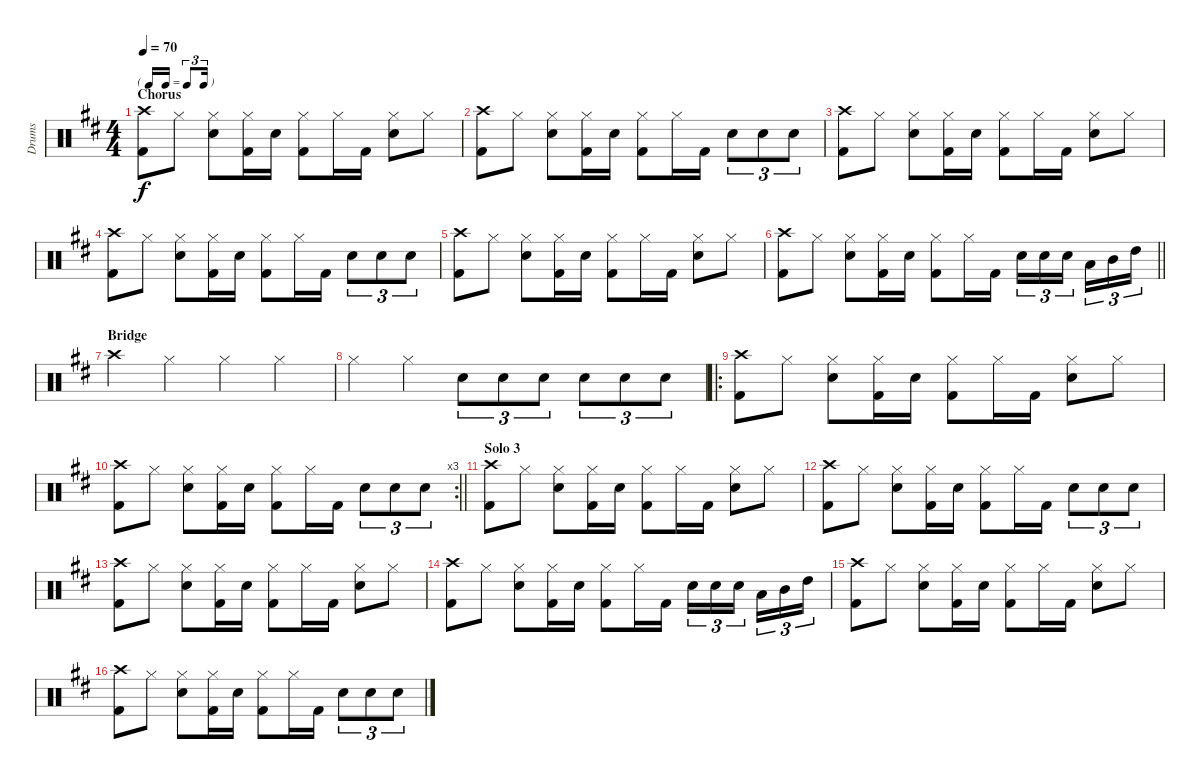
\track ("Drums" "Drums") {instrument percussion}
\staff {score}
\articulation defaults
\ts (4 4)
\tf triplet16th
\section ("" "Chorus")
\tempo 70
\clef neutral
\ks bminor
("Crash high (hit)" "Kick (hit) 2").8{dy f} "Hi-Hat (closed)".8 ("Hi-Hat (closed)" "Snare (hit) 2").8 ("Hi-Hat (closed)" "Kick (hit) 2").16 "Snare (hit) 2".16 ("Hi-Hat (closed)" "Kick (hit) 2").8 "Hi-Hat (closed)".16 "Kick (hit) 2".16 ("Hi-Hat (closed)" "Snare (hit) 2").8 "Hi-Hat (closed)".8 |
("Crash high (hit)" "Kick (hit) 2").8 "Hi-Hat (closed)".8 ("Hi-Hat (closed)" "Snare (hit) 2").8 ("Hi-Hat (closed)" "Kick (hit) 2").16 "Snare (hit) 2".16 ("Hi-Hat (closed)" "Kick (hit) 2").8 "Hi-Hat (closed)".16 "Kick (hit) 2".16 "Snare (hit) 2".8{tu (3 2)} "Snare (hit) 2".8{tu (3 2)} "Snare (hit) 2".8{tu (3 2)} |
("Crash high (hit)" "Kick (hit) 2").8 "Hi-Hat (closed)".8 ("Hi-Hat (closed)" "Snare (hit) 2").8 ("Hi-Hat (closed)" "Kick (hit) 2").16 "Snare (hit) 2".16 ("Hi-Hat (closed)" "Kick (hit) 2").8 "Hi-Hat (closed)".16 "Kick (hit) 2".16 ("Hi-Hat (closed)" "Snare (hit) 2").8 "Hi-Hat (closed)".8 |
("Crash high (hit)" "Kick (hit) 2").8 "Hi-Hat (closed)".8 ("Hi-Hat (closed)" "Snare (hit) 2").8 ("Hi-Hat (closed)" "Kick (hit) 2").16 "Snare (hit) 2".16 ("Hi-Hat (closed)" "Kick (hit) 2").8 "Hi-Hat (closed)".16 "Kick (hit) 2".16 "Snare (hit) 2".8{tu (3 2)} "Snare (hit) 2".8{tu (3 2)} "Snare (hit) 2".8{tu (3 2)} |
("Crash high (hit)" "Kick (hit) 2").8 "Hi-Hat (closed)".8 ("Hi-Hat (closed)" "Snare (hit) 2").8 ("Hi-Hat (closed)" "Kick (hit) 2").16 "Snare (hit) 2".16 ("Hi-Hat (closed)" "Kick (hit) 2").8 "Hi-Hat (closed)".16 "Kick (hit) 2".16 ("Hi-Hat (closed)" "Snare (hit) 2").8 "Hi-Hat (closed)".8 |
\barLineRight lightlight
("Crash high (hit)" "Kick (hit) 2").8 "Hi-Hat (closed)".8 ("Hi-Hat (closed)" "Snare (hit) 2").8 ("Hi-Hat (closed)" "Kick (hit) 2").16 "Snare (hit) 2".16 ("Hi-Hat (closed)" "Kick (hit) 2").8 "Hi-Hat (closed)".16 "Kick (hit) 2".16 "Snare (hit) 2".16{tu (3 2)} "Snare (hit) 2".16{tu (3 2)} "Snare (hit) 2".16{tu (3 2) beam splitsecondary} "Low Tom (hit)".16{tu (3 2)} "Mid Tom (hit)".16{tu (3 2)} "High Tom (hit)".16{tu (3 2)} |
\section ("" "Bridge")
"Crash high (hit)".4 "Hi-Hat (closed)".4 "Hi-Hat (closed)".4 "Hi-Hat (closed)".4 |
"Hi-Hat (closed)".4 "Hi-Hat (closed)".4 "Snare (hit) 2".8{tu (3 2)} "Snare (hit) 2".8{tu (3 2)} "Snare (hit) 2".8{tu (3 2)} "Snare (hit) 2".8{tu (3 2)} "Snare (hit) 2".8{tu (3 2)} "Snare (hit) 2".8{tu (3 2)} |
\ro
("Crash high (hit)" "Kick (hit) 2").8 "Hi-Hat (closed)".8 ("Hi-Hat (closed)" "Snare (hit) 2").8 ("Hi-Hat (closed)" "Kick (hit) 2").16 "Snare (hit) 2".16 ("Hi-Hat (closed)" "Kick (hit) 2").8 "Hi-Hat (closed)".16 "Kick (hit) 2".16 ("Hi-Hat (closed)" "Snare (hit) 2").8 "Hi-Hat (closed)".8 |
\rc 3
\barLineRight lightlight
("Crash high (hit)" "Kick (hit) 2").8 "Hi-Hat (closed)".8 ("Hi-Hat (closed)" "Snare (hit) 2").8 ("Hi-Hat (closed)" "Kick (hit) 2").16 "Snare (hit) 2".16 ("Hi-Hat (closed)" "Kick (hit) 2").8 "Hi-Hat (closed)".16 "Kick (hit) 2".16 "Snare (hit) 2".8{tu (3 2)} "Snare (hit) 2".8{tu (3 2)} "Snare (hit) 2".8{tu (3 2)} |
\section ("" "Solo 3")
("Crash high (hit)" "Kick (hit) 2").8 "Hi-Hat (closed)".8 ("Hi-Hat (closed)" "Snare (hit) 2").8 ("Hi-Hat (closed)" "Kick (hit) 2").16 "Snare (hit) 2".16 ("Hi-Hat (closed)" "Kick (hit) 2").8 "Hi-Hat (closed)".16 "Kick (hit) 2".16 ("Hi-Hat (closed)" "Snare (hit) 2").8 "Hi-Hat (closed)".8 |
("Crash high (hit)" "Kick (hit) 2").8 "Hi-Hat (closed)".8 ("Hi-Hat (closed)" "Snare (hit) 2").8 ("Hi-Hat (closed)" "Kick (hit) 2").16 "Snare (hit) 2".16 ("Hi-Hat (closed)" "Kick (hit) 2").8 "Hi-Hat (closed)".16 "Kick (hit) 2".16 "Snare (hit) 2".8{tu (3 2)} "Snare (hit) 2".8{tu (3 2)} "Snare (hit) 2".8{tu (3 2)} |
("Crash high (hit)" "Kick (hit) 2").8 "Hi-Hat (closed)".8 ("Hi-Hat (closed)" "Snare (hit) 2").8 ("Hi-Hat (closed)" "Kick (hit) 2").16 "Snare (hit) 2".16 ("Hi-Hat (closed)" "Kick (hit) 2").8 "Hi-Hat (closed)".16 "Kick (hit) 2".16 ("Hi-Hat (closed)" "Snare (hit) 2").8 "Hi-Hat (closed)".8 |
("Crash high (hit)" "Kick (hit) 2").8 "Hi-Hat (closed)".8 ("Hi-Hat (closed)" "Snare (hit) 2").8 ("Hi-Hat (closed)" "Kick (hit) 2").16 "Snare (hit) 2".16 ("Hi-Hat (closed)" "Kick (hit) 2").8 "Hi-Hat (closed)".16 "Kick (hit) 2".16 "Snare (hit) 2".16{tu (3 2)} "Snare (hit) 2".16{tu (3 2)} "Snare (hit) 2".16{tu (3 2) beam splitsecondary} "Low Tom (hit)".16{tu (3 2)} "Mid Tom (hit)".16{tu (3 2)} "High Tom (hit)".16{tu (3 2)} |
("Crash high (hit)" "Kick (hit) 2").8 "Hi-Hat (closed)".8 ("Hi-Hat (closed)" "Snare (hit) 2").8 ("Hi-Hat (closed)" "Kick (hit) 2").16 "Snare (hit) 2".16 ("Hi-Hat (closed)" "Kick (hit) 2").8 "Hi-Hat (closed)".16 "Kick (hit) 2".16 ("Hi-Hat (closed)" "Snare (hit) 2").8 "Hi-Hat (closed)".8 |
("Crash high (hit)" "Kick (hit) 2").8 "Hi-Hat (closed)".8 ("Hi-Hat (closed)" "Snare (hit) 2").8 ("Hi-Hat (closed)" "Kick (hit) 2").16 "Snare (hit) 2".16 ("Hi-Hat (closed)" "Kick (hit) 2").8 "Hi-Hat (closed)".16 "Kick (hit) 2".16 "Snare (hit) 2".8{tu (3 2)} "Snare (hit) 2".8{tu (3 2)} "Snare (hit) 2".8{tu (3 2)}
